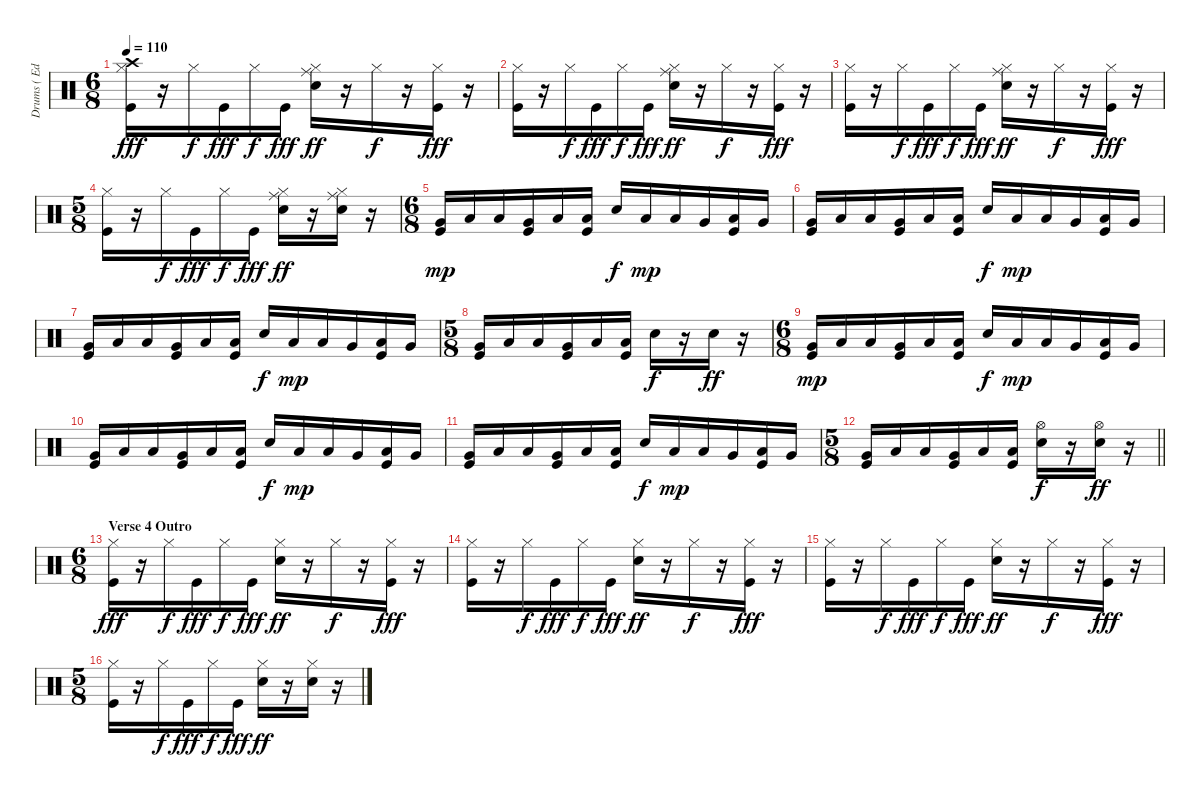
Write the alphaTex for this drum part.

\track ("Drums ( Edward O'Brien )" "Drums ( Ed") {instrument percussion}
\staff {score}
\articulation defaults
\ts (6 8)
\tempo 110
\clef neutral
\ks c
("Crash high (hit)" "Hi-Hat (closed)" "Kick (hit)").16{dy fff} r.16 "Hi-Hat (closed)".16{dy f} "Kick (hit)".16{dy fff} "Hi-Hat (closed)".16{dy f} "Kick (hit)".16{dy fff} ("Ride (middle)" "Hi-Hat (closed)" "Electric Snare (hit)").16{dy ff} r.16 "Hi-Hat (closed)".16{dy f} r.16 ("Hi-Hat (closed)" "Kick (hit)").16{dy fff} r.16 |
("Hi-Hat (closed)" "Kick (hit)").16 r.16 "Hi-Hat (closed)".16{dy f} "Kick (hit)".16{dy fff} "Hi-Hat (closed)".16{dy f} "Kick (hit)".16{dy fff} ("Ride (middle)" "Hi-Hat (closed)" "Electric Snare (hit)").16{dy ff} r.16 "Hi-Hat (closed)".16{dy f} r.16 ("Hi-Hat (closed)" "Kick (hit)").16{dy fff} r.16 |
("Hi-Hat (closed)" "Kick (hit)").16 r.16 "Hi-Hat (closed)".16{dy f} "Kick (hit)".16{dy fff} "Hi-Hat (closed)".16{dy f} "Kick (hit)".16{dy fff} ("Ride (middle)" "Hi-Hat (closed)" "Electric Snare (hit)").16{dy ff} r.16 "Hi-Hat (closed)".16{dy f} r.16 ("Hi-Hat (closed)" "Kick (hit)").16{dy fff} r.16 |
\ts (5 8)
("Hi-Hat (closed)" "Kick (hit)").16 r.16 "Hi-Hat (closed)".16{dy f} "Kick (hit)".16{dy fff} "Hi-Hat (closed)".16{dy f} "Kick (hit)".16{dy fff} ("Ride (middle)" "Hi-Hat (closed)" "Electric Snare (hit)").16{dy ff} r.16 ("Ride (middle)" "Hi-Hat (closed)" "Electric Snare (hit)").16 r.16 |
\ts (6 8)
("Very Low Tom (hit)" "Kick (hit)").16{dy mp} "Low Floor Tom (hit)".16 "Low Floor Tom (hit)".16 ("Very Low Tom (hit)" "Kick (hit)").16 "Low Floor Tom (hit)".16 ("Low Floor Tom (hit)" "Kick (hit)").16 "Electric Snare (hit)".16{dy f} "Low Floor Tom (hit)".16{dy mp} "Low Floor Tom (hit)".16 "Very Low Tom (hit)".16 ("Low Floor Tom (hit)" "Kick (hit)").16 "Very Low Tom (hit)".16 |
("Very Low Tom (hit)" "Kick (hit)").16 "Low Floor Tom (hit)".16 "Low Floor Tom (hit)".16 ("Very Low Tom (hit)" "Kick (hit)").16 "Low Floor Tom (hit)".16 ("Low Floor Tom (hit)" "Kick (hit)").16 "Electric Snare (hit)".16{dy f} "Low Floor Tom (hit)".16{dy mp} "Low Floor Tom (hit)".16 "Very Low Tom (hit)".16 ("Low Floor Tom (hit)" "Kick (hit)").16 "Very Low Tom (hit)".16 |
("Very Low Tom (hit)" "Kick (hit)").16 "Low Floor Tom (hit)".16 "Low Floor Tom (hit)".16 ("Very Low Tom (hit)" "Kick (hit)").16 "Low Floor Tom (hit)".16 ("Low Floor Tom (hit)" "Kick (hit)").16 "Electric Snare (hit)".16{dy f} "Low Floor Tom (hit)".16{dy mp} "Low Floor Tom (hit)".16 "Very Low Tom (hit)".16 ("Low Floor Tom (hit)" "Kick (hit)").16 "Very Low Tom (hit)".16 |
\ts (5 8)
("Very Low Tom (hit)" "Kick (hit)").16 "Low Floor Tom (hit)".16 "Low Floor Tom (hit)".16 ("Very Low Tom (hit)" "Kick (hit)").16 "Low Floor Tom (hit)".16 ("Low Floor Tom (hit)" "Kick (hit)").16 "Electric Snare (hit)".16{dy f} r.16 "Electric Snare (hit)".16{dy ff} r.16 |
\ts (6 8)
("Very Low Tom (hit)" "Kick (hit)").16{dy mp} "Low Floor Tom (hit)".16 "Low Floor Tom (hit)".16 ("Very Low Tom (hit)" "Kick (hit)").16 "Low Floor Tom (hit)".16 ("Low Floor Tom (hit)" "Kick (hit)").16 "Electric Snare (hit)".16{dy f} "Low Floor Tom (hit)".16{dy mp} "Low Floor Tom (hit)".16 "Very Low Tom (hit)".16 ("Low Floor Tom (hit)" "Kick (hit)").16 "Very Low Tom (hit)".16 |
("Very Low Tom (hit)" "Kick (hit)").16 "Low Floor Tom (hit)".16 "Low Floor Tom (hit)".16 ("Very Low Tom (hit)" "Kick (hit)").16 "Low Floor Tom (hit)".16 ("Low Floor Tom (hit)" "Kick (hit)").16 "Electric Snare (hit)".16{dy f} "Low Floor Tom (hit)".16{dy mp} "Low Floor Tom (hit)".16 "Very Low Tom (hit)".16 ("Low Floor Tom (hit)" "Kick (hit)").16 "Very Low Tom (hit)".16 |
("Very Low Tom (hit)" "Kick (hit)").16 "Low Floor Tom (hit)".16 "Low Floor Tom (hit)".16 ("Very Low Tom (hit)" "Kick (hit)").16 "Low Floor Tom (hit)".16 ("Low Floor Tom (hit)" "Kick (hit)").16 "Electric Snare (hit)".16{dy f} "Low Floor Tom (hit)".16{dy mp} "Low Floor Tom (hit)".16 "Very Low Tom (hit)".16 ("Low Floor Tom (hit)" "Kick (hit)").16 "Very Low Tom (hit)".16 |
\ts (5 8)
\barLineRight lightlight
("Very Low Tom (hit)" "Kick (hit)").16 "Low Floor Tom (hit)".16 "Low Floor Tom (hit)".16 ("Very Low Tom (hit)" "Kick (hit)").16 "Low Floor Tom (hit)".16 ("Low Floor Tom (hit)" "Kick (hit)").16 ("Hi-Hat (open)" "Electric Snare (hit)").16{dy f} r.16 ("Hi-Hat (open)" "Electric Snare (hit)").16{dy ff} r.16 |
\ts (6 8)
\section ("" "Verse 4 Outro")
("Hi-Hat (closed)" "Kick (hit)").16{dy fff} r.16 "Hi-Hat (closed)".16{dy f} "Kick (hit)".16{dy fff} "Hi-Hat (closed)".16{dy f} "Kick (hit)".16{dy fff} ("Hi-Hat (closed)" "Electric Snare (hit)").16{dy ff} r.16 "Hi-Hat (closed)".16{dy f} r.16 ("Hi-Hat (closed)" "Kick (hit)").16{dy fff} r.16 |
("Hi-Hat (closed)" "Kick (hit)").16 r.16 "Hi-Hat (closed)".16{dy f} "Kick (hit)".16{dy fff} "Hi-Hat (closed)".16{dy f} "Kick (hit)".16{dy fff} ("Hi-Hat (closed)" "Electric Snare (hit)").16{dy ff} r.16 "Hi-Hat (closed)".16{dy f} r.16 ("Hi-Hat (closed)" "Kick (hit)").16{dy fff} r.16 |
("Hi-Hat (closed)" "Kick (hit)").16 r.16 "Hi-Hat (closed)".16{dy f} "Kick (hit)".16{dy fff} "Hi-Hat (closed)".16{dy f} "Kick (hit)".16{dy fff} ("Hi-Hat (closed)" "Electric Snare (hit)").16{dy ff} r.16 "Hi-Hat (closed)".16{dy f} r.16 ("Hi-Hat (closed)" "Kick (hit)").16{dy fff} r.16 |
\ts (5 8)
("Hi-Hat (closed)" "Kick (hit)").16 r.16 "Hi-Hat (closed)".16{dy f} "Kick (hit)".16{dy fff} "Hi-Hat (closed)".16{dy f} "Kick (hit)".16{dy fff} ("Hi-Hat (closed)" "Electric Snare (hit)").16{dy ff} r.16 ("Hi-Hat (closed)" "Electric Snare (hit)").16 r.16
